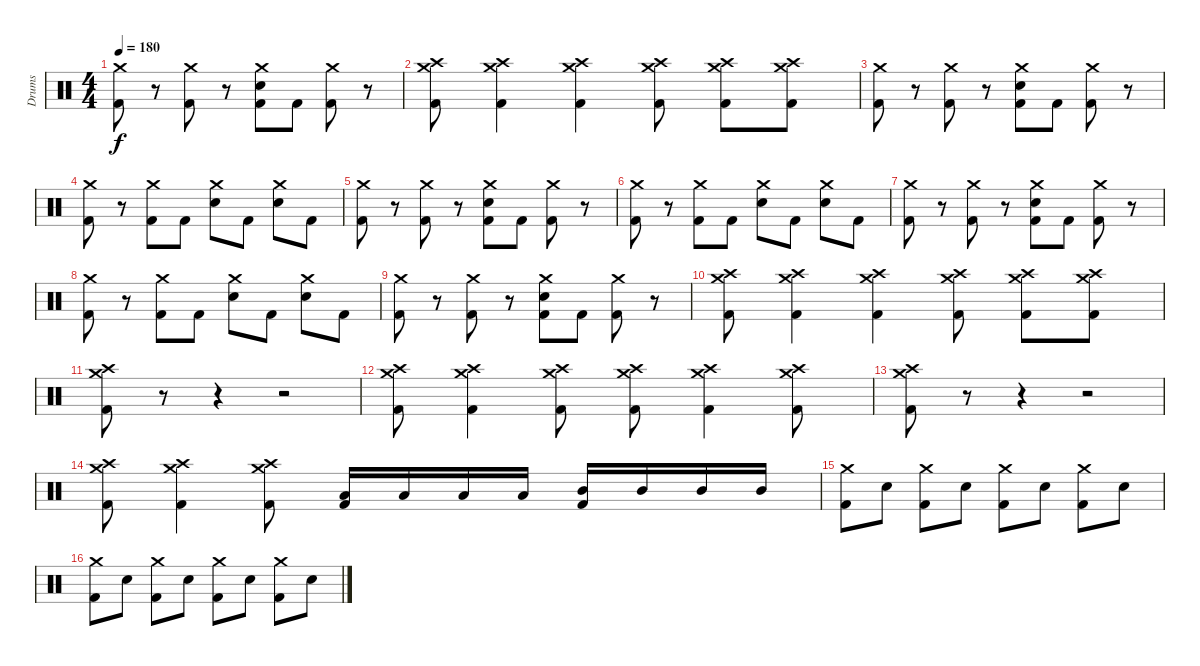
\track ("Drums" "Drums") {instrument percussion}
\staff {score}
\articulation defaults
\ts (4 4)
\tempo 180
\clef neutral
\ks c
("Crash medium (hit)" "Kick (hit) 2").8{dy f} r.8 ("Crash medium (hit)" "Kick (hit) 2").8 r.8 ("Crash medium (hit)" "Snare (hit) 2" "Kick (hit) 2").8 "Kick (hit) 2".8 ("Crash medium (hit)" "Kick (hit) 2").8 r.8 |
("Crash high (hit)" "Crash medium (hit)" "Kick (hit) 2").8 ("Crash high (hit)" "Crash medium (hit)" "Kick (hit) 2").4 ("Crash high (hit)" "Crash medium (hit)" "Kick (hit) 2").4 ("Crash high (hit)" "Crash medium (hit)" "Kick (hit) 2").8 ("Crash high (hit)" "Crash medium (hit)" "Kick (hit) 2").8 ("Crash high (hit)" "Crash medium (hit)" "Kick (hit) 2").8 |
("Crash medium (hit)" "Kick (hit) 2").8 r.8 ("Crash medium (hit)" "Kick (hit) 2").8 r.8 ("Crash medium (hit)" "Snare (hit) 2" "Kick (hit) 2").8 "Kick (hit) 2".8 ("Crash medium (hit)" "Kick (hit) 2").8 r.8 |
("Crash medium (hit)" "Kick (hit) 2").8 r.8 ("Crash medium (hit)" "Kick (hit) 2").8 "Kick (hit) 2".8 ("Crash medium (hit)" "Snare (hit) 2").8 "Kick (hit) 2".8 ("Crash medium (hit)" "Snare (hit) 2").8 "Kick (hit) 2".8 |
("Crash medium (hit)" "Kick (hit) 2").8 r.8 ("Crash medium (hit)" "Kick (hit) 2").8 r.8 ("Crash medium (hit)" "Snare (hit) 2" "Kick (hit) 2").8 "Kick (hit) 2".8 ("Crash medium (hit)" "Kick (hit) 2").8 r.8 |
("Crash medium (hit)" "Kick (hit) 2").8 r.8 ("Crash medium (hit)" "Kick (hit) 2").8 "Kick (hit) 2".8 ("Crash medium (hit)" "Snare (hit) 2").8 "Kick (hit) 2".8 ("Crash medium (hit)" "Snare (hit) 2").8 "Kick (hit) 2".8 |
("Crash medium (hit)" "Kick (hit) 2").8 r.8 ("Crash medium (hit)" "Kick (hit) 2").8 r.8 ("Crash medium (hit)" "Snare (hit) 2" "Kick (hit) 2").8 "Kick (hit) 2".8 ("Crash medium (hit)" "Kick (hit) 2").8 r.8 |
("Crash medium (hit)" "Kick (hit) 2").8 r.8 ("Crash medium (hit)" "Kick (hit) 2").8 "Kick (hit) 2".8 ("Crash medium (hit)" "Snare (hit) 2").8 "Kick (hit) 2".8 ("Crash medium (hit)" "Snare (hit) 2").8 "Kick (hit) 2".8 |
("Crash medium (hit)" "Kick (hit) 2").8 r.8 ("Crash medium (hit)" "Kick (hit) 2").8 r.8 ("Crash medium (hit)" "Snare (hit) 2" "Kick (hit) 2").8 "Kick (hit) 2".8 ("Crash medium (hit)" "Kick (hit) 2").8 r.8 |
("Crash high (hit)" "Crash medium (hit)" "Kick (hit) 2").8 ("Crash high (hit)" "Crash medium (hit)" "Kick (hit) 2").4 ("Crash high (hit)" "Crash medium (hit)" "Kick (hit) 2").4 ("Crash high (hit)" "Crash medium (hit)" "Kick (hit) 2").8 ("Crash high (hit)" "Crash medium (hit)" "Kick (hit) 2").8 ("Crash high (hit)" "Crash medium (hit)" "Kick (hit) 2").8 |
("Crash high (hit)" "Crash medium (hit)" "Kick (hit) 2").8 r.8 r.4 r.2 |
("Crash high (hit)" "Crash medium (hit)" "Kick (hit) 2").8 ("Crash high (hit)" "Crash medium (hit)" "Kick (hit) 2").4 ("Crash high (hit)" "Crash medium (hit)" "Kick (hit) 2").8 ("Crash high (hit)" "Crash medium (hit)" "Kick (hit) 2").8 ("Crash high (hit)" "Crash medium (hit)" "Kick (hit) 2").4 ("Crash high (hit)" "Crash medium (hit)" "Kick (hit) 2").8 |
("Crash high (hit)" "Crash medium (hit)" "Kick (hit) 2").8 r.8 r.4 r.2 |
("Crash high (hit)" "Crash medium (hit)" "Kick (hit) 2").8 ("Crash high (hit)" "Crash medium (hit)" "Kick (hit) 2").4 ("Crash high (hit)" "Crash medium (hit)" "Kick (hit) 2").8 ("Low Tom (hit)" "Kick (hit) 2").16 "Low Tom (hit)".16 "Low Tom (hit)".16 "Low Tom (hit)".16 ("Mid Tom (hit)" "Kick (hit) 2").16 "Mid Tom (hit)".16 "Mid Tom (hit)".16 "Mid Tom (hit)".16 |
("Crash medium (hit)" "Kick (hit) 2").8 "Snare (hit) 2".8 ("Crash medium (hit)" "Kick (hit) 2").8 "Snare (hit) 2".8 ("Crash medium (hit)" "Kick (hit) 2").8 "Snare (hit) 2".8 ("Crash medium (hit)" "Kick (hit) 2").8 "Snare (hit) 2".8 |
("Crash medium (hit)" "Kick (hit) 2").8 "Snare (hit) 2".8 ("Crash medium (hit)" "Kick (hit) 2").8 "Snare (hit) 2".8 ("Crash medium (hit)" "Kick (hit) 2").8 "Snare (hit) 2".8 ("Crash medium (hit)" "Kick (hit) 2").8 "Snare (hit) 2".8
